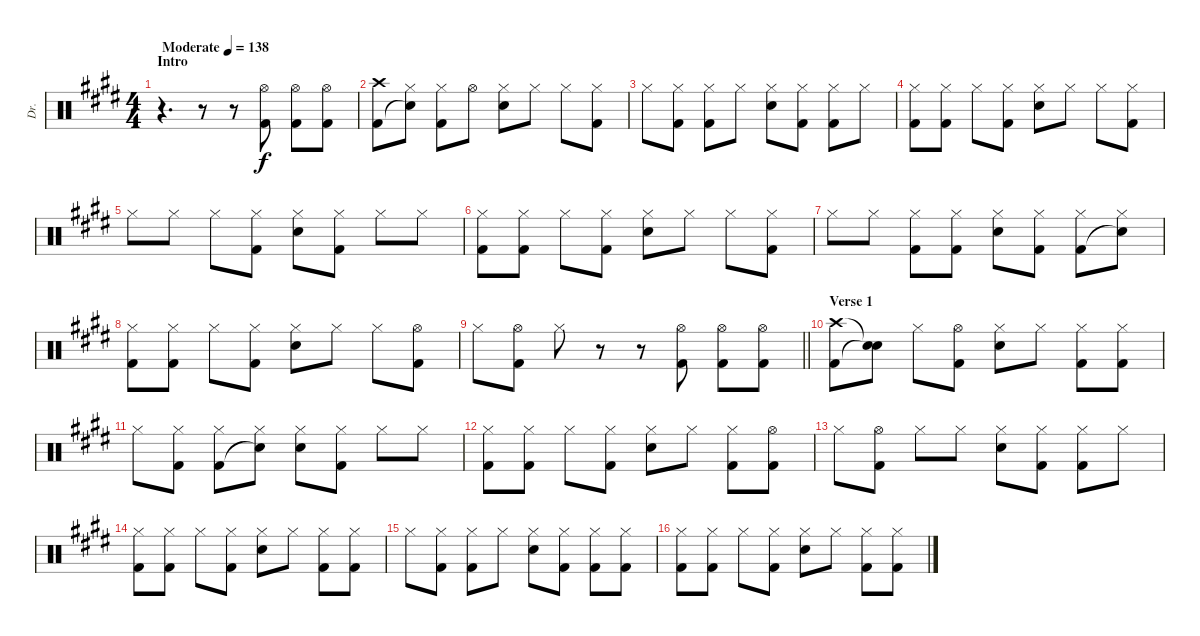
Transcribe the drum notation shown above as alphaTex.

\track ("Dr." "Dr.") {instrument percussion}
\staff {score}
\articulation defaults
\ts (4 4)
\section ("" "Intro")
\tempo (138 "Moderate")
\clef neutral
\ks e
r.4{d dy f} r.8 r.8 ("Hi-Hat (open)" "Kick (hit) 2").8 ("Hi-Hat (open)" "Kick (hit) 2").8 ("Hi-Hat (open)" "Kick (hit) 2").8 |
("Crash high (hit)" "Kick (hit) 2").8 ("Hi-Hat (closed)" "Snare (hit)"{t}).8 ("Hi-Hat (closed)" "Kick (hit) 2").8 "Hi-Hat (open)".8 ("Hi-Hat (closed)" "Snare (hit) 2").8 "Hi-Hat (closed)".8 "Hi-Hat (closed)".8 ("Hi-Hat (closed)" "Kick (hit) 2").8 |
"Hi-Hat (closed)".8 ("Hi-Hat (closed)" "Kick (hit) 2").8 ("Hi-Hat (closed)" "Kick (hit) 2").8 "Hi-Hat (closed)".8 ("Hi-Hat (closed)" "Snare (hit) 2").8 ("Hi-Hat (closed)" "Kick (hit) 2").8 ("Hi-Hat (closed)" "Kick (hit) 2").8 "Hi-Hat (closed)".8 |
("Hi-Hat (closed)" "Kick (hit) 2").8 ("Hi-Hat (closed)" "Kick (hit) 2").8 "Hi-Hat (closed)".8 ("Hi-Hat (closed)" "Kick (hit) 2").8 ("Hi-Hat (closed)" "Snare (hit) 2").8 "Hi-Hat (closed)".8 "Hi-Hat (closed)".8 ("Hi-Hat (closed)" "Kick (hit) 2").8 |
"Hi-Hat (closed)".8 "Hi-Hat (closed)".8 "Hi-Hat (closed)".8 ("Hi-Hat (closed)" "Kick (hit) 2").8 ("Hi-Hat (closed)" "Snare (hit) 2").8 ("Hi-Hat (closed)" "Kick (hit) 2").8 "Hi-Hat (closed)".8 "Hi-Hat (closed)".8 |
("Hi-Hat (closed)" "Kick (hit) 2").8 ("Hi-Hat (closed)" "Kick (hit) 2").8 "Hi-Hat (closed)".8 ("Hi-Hat (closed)" "Kick (hit) 2").8 ("Hi-Hat (closed)" "Snare (hit) 2").8 "Hi-Hat (closed)".8 "Hi-Hat (closed)".8 ("Hi-Hat (closed)" "Kick (hit) 2").8 |
"Hi-Hat (closed)".8 "Hi-Hat (closed)".8 ("Hi-Hat (closed)" "Kick (hit) 2").8 ("Hi-Hat (closed)" "Kick (hit) 2").8 ("Hi-Hat (closed)" "Snare (hit) 2").8 ("Hi-Hat (closed)" "Kick (hit) 2").8 ("Hi-Hat (closed)" "Kick (hit) 2").8 ("Hi-Hat (closed)" "Snare (hit)"{t}).8 |
("Hi-Hat (closed)" "Kick (hit) 2").8 ("Hi-Hat (closed)" "Kick (hit) 2").8 "Hi-Hat (closed)".8 ("Hi-Hat (closed)" "Kick (hit) 2").8 ("Hi-Hat (closed)" "Snare (hit) 2").8 "Hi-Hat (closed)".8 "Hi-Hat (closed)".8 ("Hi-Hat (open)" "Kick (hit) 2").8 |
\barLineRight lightlight "Hi-Hat (closed)".8
("Hi-Hat (open)" "Kick (hit) 2").8 "Hi-Hat (closed)".8 r.8 r.8 ("Hi-Hat (open)" "Kick (hit) 2").8 ("Hi-Hat (open)" "Kick (hit) 2").8 ("Hi-Hat (open)" "Kick (hit) 2").8 |
\section ("" "Verse 1")
("Crash high (hit)" "Kick (hit) 2").8 ("Snare (hit)"{t} "Snare (hit)"{t}).8 "Hi-Hat (closed)".8 ("Hi-Hat (open)" "Kick (hit) 2").8 ("Hi-Hat (closed)" "Snare (hit) 2").8 "Hi-Hat (closed)".8 ("Hi-Hat (closed)" "Kick (hit) 2").8 ("Hi-Hat (closed)" "Kick (hit) 2").8 |
"Hi-Hat (closed)".8 ("Hi-Hat (closed)" "Kick (hit) 2").8 ("Hi-Hat (closed)" "Kick (hit) 2").8 ("Hi-Hat (closed)" "Snare (hit)"{t}).8 ("Hi-Hat (closed)" "Snare (hit) 2").8 ("Hi-Hat (closed)" "Kick (hit) 2").8 "Hi-Hat (closed)".8 "Hi-Hat (closed)".8 |
("Hi-Hat (closed)" "Kick (hit) 2").8 ("Hi-Hat (closed)" "Kick (hit) 2").8 "Hi-Hat (closed)".8 ("Hi-Hat (closed)" "Kick (hit) 2").8 ("Hi-Hat (closed)" "Snare (hit) 2").8 "Hi-Hat (closed)".8 ("Hi-Hat (closed)" "Kick (hit) 2").8 ("Hi-Hat (open)" "Kick (hit) 2").8 |
"Hi-Hat (closed)".8 ("Hi-Hat (open)" "Kick (hit) 2").8 "Hi-Hat (closed)".8 "Hi-Hat (closed)".8 ("Hi-Hat (closed)" "Snare (hit) 2").8 ("Hi-Hat (closed)" "Kick (hit) 2").8 ("Hi-Hat (closed)" "Kick (hit) 2").8 "Hi-Hat (closed)".8 |
("Hi-Hat (closed)" "Kick (hit) 2").8 ("Hi-Hat (closed)" "Kick (hit) 2").8 "Hi-Hat (closed)".8 ("Hi-Hat (closed)" "Kick (hit) 2").8 ("Hi-Hat (closed)" "Snare (hit) 2").8 "Hi-Hat (closed)".8 ("Hi-Hat (closed)" "Kick (hit) 2").8 ("Hi-Hat (closed)" "Kick (hit) 2").8 |
"Hi-Hat (closed)".8 ("Hi-Hat (closed)" "Kick (hit) 2").8 ("Hi-Hat (closed)" "Kick (hit) 2").8 "Hi-Hat (closed)".8 ("Hi-Hat (closed)" "Snare (hit) 2").8 ("Hi-Hat (closed)" "Kick (hit) 2").8 ("Hi-Hat (closed)" "Kick (hit) 2").8 ("Hi-Hat (closed)" "Kick (hit) 2").8 |
("Hi-Hat (closed)" "Kick (hit) 2").8 ("Hi-Hat (closed)" "Kick (hit) 2").8 "Hi-Hat (closed)".8 ("Hi-Hat (closed)" "Kick (hit) 2").8 ("Hi-Hat (closed)" "Snare (hit) 2").8 "Hi-Hat (closed)".8 ("Hi-Hat (closed)" "Kick (hit) 2").8 ("Hi-Hat (closed)" "Kick (hit) 2").8
